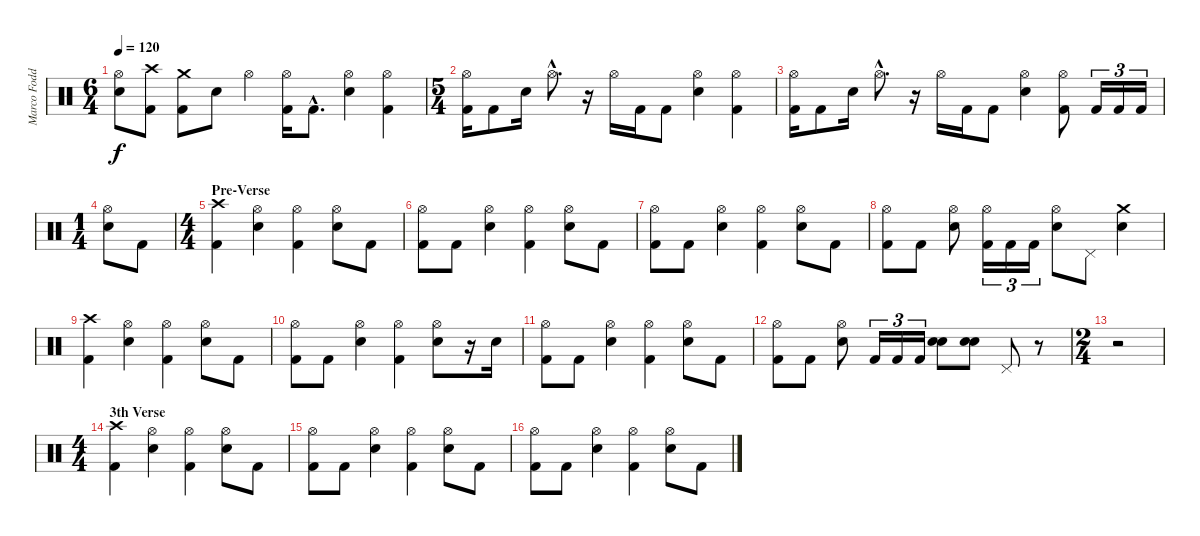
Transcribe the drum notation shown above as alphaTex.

\track ("Marco Foddis " "Marco Fodd") {instrument percussion}
\staff {score}
\articulation defaults
\ts (6 4)
\tempo 120
\clef neutral
\ks c
("Hi-Hat (open)" "Electric Snare (hit)").8{dy f} ("Crash high (hit)" "Kick (hit) 2").8 ("Crash medium (hit)" "Kick (hit) 2").8 "Electric Snare (hit)".8 "Hi-Hat (open)".4 ("Hi-Hat (open)" "Kick (hit) 2").16 "Kick (hit) 2"{hac}.8{d} ("Hi-Hat (open)" "Electric Snare (hit)").4 ("Hi-Hat (open)" "Kick (hit) 2").4 |
\ts (5 4)
("Hi-Hat (open)" "Kick (hit) 2").16 "Kick (hit) 2".8 "Electric Snare (hit)".16 "Hi-Hat (open)"{hac}.8{d} r.16 "Hi-Hat (open)".16 "Kick (hit) 2".16 "Kick (hit) 2".8 ("Hi-Hat (open)" "Electric Snare (hit)").4 ("Hi-Hat (open)" "Kick (hit) 2").4 |
("Hi-Hat (open)" "Kick (hit) 2").16 "Kick (hit) 2".8 "Electric Snare (hit)".16 "Hi-Hat (open)"{hac}.8{d} r.16 "Hi-Hat (open)".16 "Kick (hit) 2".16 "Kick (hit) 2".8 ("Hi-Hat (open)" "Electric Snare (hit)").4 ("Hi-Hat (open)" "Kick (hit) 2").8 "Kick (hit) 2".16{tu (3 2)} "Kick (hit) 2".16{tu (3 2)} "Kick (hit) 2".16{tu (3 2)} |
\ts (1 4)
("Hi-Hat (open)" "Electric Snare (hit)").8 "Kick (hit) 2".8 |
\ts (4 4)
\section ("" "Pre-Verse")
("Crash high (hit)" "Kick (hit) 2").4 ("Hi-Hat (open)" "Electric Snare (hit)").4 ("Hi-Hat (open)" "Kick (hit) 2").4 ("Hi-Hat (open)" "Electric Snare (hit)").8 "Kick (hit) 2".8 |
("Hi-Hat (open)" "Kick (hit) 2").8 "Kick (hit) 2".8 ("Hi-Hat (open)" "Electric Snare (hit)").4 ("Hi-Hat (open)" "Kick (hit) 2").4 ("Hi-Hat (open)" "Electric Snare (hit)").8 "Kick (hit) 2".8 |
("Hi-Hat (open)" "Kick (hit) 2").8 "Kick (hit) 2".8 ("Hi-Hat (open)" "Electric Snare (hit)").4 ("Hi-Hat (open)" "Kick (hit) 2").4 ("Hi-Hat (open)" "Electric Snare (hit)").8 "Kick (hit) 2".8 |
("Hi-Hat (open)" "Kick (hit) 2").8 "Kick (hit) 2".8 ("Hi-Hat (open)" "Electric Snare (hit)").8 ("Hi-Hat (open)" "Kick (hit) 2").16{tu (3 2)} "Kick (hit) 2".16{tu (3 2)} "Kick (hit) 2".16{tu (3 2)} ("Hi-Hat (open)" "Electric Snare (hit)").8 "Pedal Hi-Hat (hit)".8 ("Crash medium (hit)" "Electric Snare (hit)").4 |
("Crash high (hit)" "Kick (hit) 2").4 ("Hi-Hat (open)" "Electric Snare (hit)").4 ("Hi-Hat (open)" "Kick (hit) 2").4 ("Hi-Hat (open)" "Electric Snare (hit)").8 "Kick (hit) 2".8 |
("Hi-Hat (open)" "Kick (hit) 2").8 "Kick (hit) 2".8 ("Hi-Hat (open)" "Electric Snare (hit)").4 ("Hi-Hat (open)" "Kick (hit) 2").4 ("Hi-Hat (open)" "Electric Snare (hit)").8 r.16 "Electric Snare (hit)".16 |
("Hi-Hat (open)" "Kick (hit) 2").8 "Kick (hit) 2".8 ("Hi-Hat (open)" "Electric Snare (hit)").4 ("Hi-Hat (open)" "Kick (hit) 2").4 ("Hi-Hat (open)" "Electric Snare (hit)").8 "Kick (hit) 2".8 |
("Hi-Hat (open)" "Kick (hit) 2").8 "Kick (hit) 2".8 ("Hi-Hat (open)" "Electric Snare (hit)").8 "Kick (hit) 2".16{tu (3 2)} "Kick (hit) 2".16{tu (3 2)} "Kick (hit) 2".16{tu (3 2)} ("Electric Snare (hit)" "Electric Snare (hit)").8 ("Electric Snare (hit)" "Electric Snare (hit)").8 "Pedal Hi-Hat (hit)".8 r.8 |
\ts (2 4)
r.2 |
\ts (4 4)
\section ("" "3th Verse")
("Crash high (hit)" "Kick (hit) 2").4 ("Hi-Hat (open)" "Electric Snare (hit)").4 ("Hi-Hat (open)" "Kick (hit) 2").4 ("Hi-Hat (open)" "Electric Snare (hit)").8 "Kick (hit) 2".8 |
("Hi-Hat (open)" "Kick (hit) 2").8 "Kick (hit) 2".8 ("Hi-Hat (open)" "Electric Snare (hit)").4 ("Hi-Hat (open)" "Kick (hit) 2").4 ("Hi-Hat (open)" "Electric Snare (hit)").8 "Kick (hit) 2".8 |
("Hi-Hat (open)" "Kick (hit) 2").8 "Kick (hit) 2".8 ("Hi-Hat (open)" "Electric Snare (hit)").4 ("Hi-Hat (open)" "Kick (hit) 2").4 ("Hi-Hat (open)" "Electric Snare (hit)").8 "Kick (hit) 2".8
